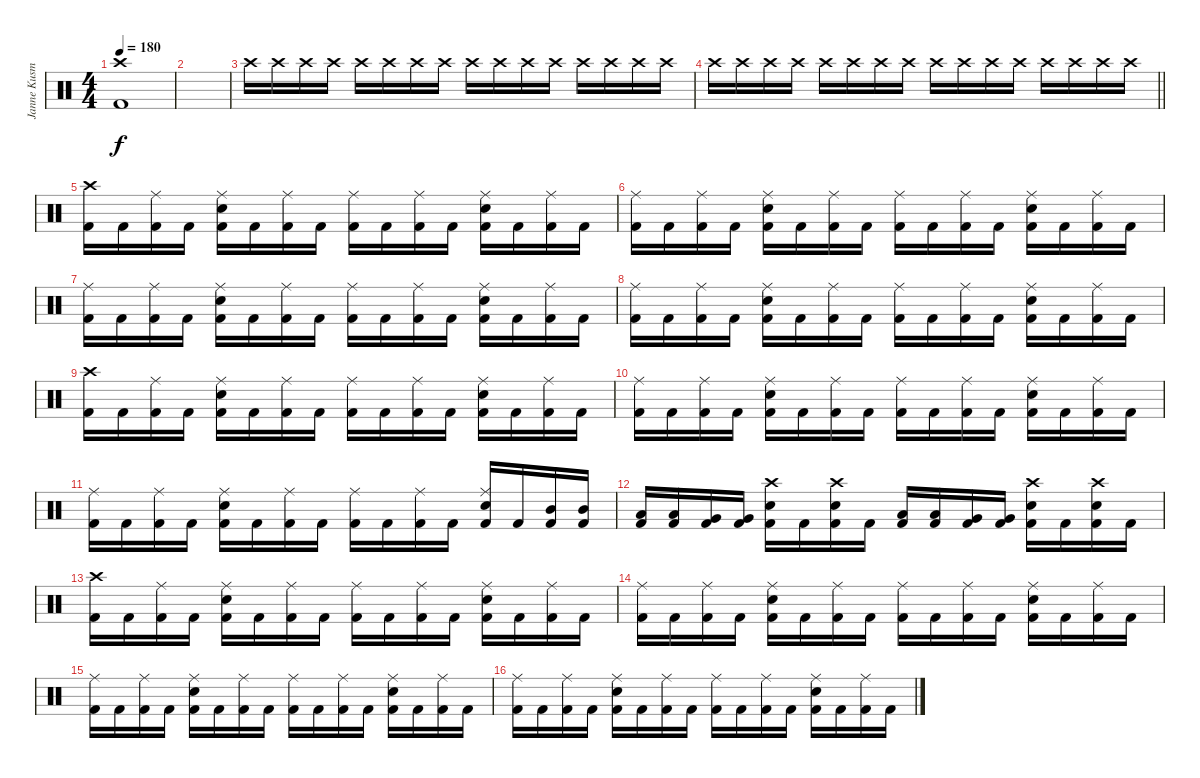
\track ("Janne Kusmin - Drums" "Janne Kusm") {instrument percussion}
\staff {score}
\articulation defaults
\ts (4 4)
\tempo 180
\clef neutral
\ks c
("Crash high (hit)" "Kick (hit) 2").1{dy f} |
|
"Crash high (hit)".16{volume 13} "Crash high (hit)".16 "Crash high (hit)".16 "Crash high (hit)".16 "Crash high (hit)".16 "Crash high (hit)".16 "Crash high (hit)".16 "Crash high (hit)".16 "Crash high (hit)".16 "Crash high (hit)".16 "Crash high (hit)".16 "Crash high (hit)".16 "Crash high (hit)".16 "Crash high (hit)".16 "Crash high (hit)".16 "Crash high (hit)".16 |
\barLineRight lightlight "Crash high (hit)".16 "Crash high (hit)".16 "Crash high (hit)".16 "Crash high (hit)".16 "Crash high (hit)".16 "Crash high (hit)".16 "Crash high (hit)".16 "Crash high (hit)".16 "Crash high (hit)".16 "Crash high (hit)".16 "Crash high (hit)".16 "Crash high (hit)".16 "Crash high (hit)".16 "Crash high (hit)".16 "Crash high (hit)".16 "Crash high (hit)".16
|
\section ("" "")
("Crash high (hit)" "Kick (hit) 2").16 "Kick (hit) 2".16 ("Ride (middle)" "Kick (hit) 2").16 "Kick (hit) 2".16 ("Ride (middle)" "Electric Snare (hit)" "Kick (hit) 2").16 "Kick (hit) 2".16 ("Ride (middle)" "Kick (hit) 2").16 "Kick (hit) 2".16 ("Ride (middle)" "Kick (hit) 2").16 "Kick (hit) 2".16 ("Ride (middle)" "Kick (hit) 2").16 "Kick (hit) 2".16 ("Ride (middle)" "Electric Snare (hit)" "Kick (hit) 2").16 "Kick (hit) 2".16 ("Ride (middle)" "Kick (hit) 2").16 "Kick (hit) 2".16 |
("Ride (middle)" "Kick (hit) 2").16 "Kick (hit) 2".16 ("Ride (middle)" "Kick (hit) 2").16 "Kick (hit) 2".16 ("Ride (middle)" "Electric Snare (hit)" "Kick (hit) 2").16 "Kick (hit) 2".16 ("Ride (middle)" "Kick (hit) 2").16 "Kick (hit) 2".16 ("Ride (middle)" "Kick (hit) 2").16 "Kick (hit) 2".16 ("Ride (middle)" "Kick (hit) 2").16 "Kick (hit) 2".16 ("Ride (middle)" "Electric Snare (hit)" "Kick (hit) 2").16 "Kick (hit) 2".16 ("Ride (middle)" "Kick (hit) 2").16 "Kick (hit) 2".16 |
("Ride (middle)" "Kick (hit) 2").16 "Kick (hit) 2".16 ("Ride (middle)" "Kick (hit) 2").16 "Kick (hit) 2".16 ("Ride (middle)" "Electric Snare (hit)" "Kick (hit) 2").16 "Kick (hit) 2".16 ("Ride (middle)" "Kick (hit) 2").16 "Kick (hit) 2".16 ("Ride (middle)" "Kick (hit) 2").16 "Kick (hit) 2".16 ("Ride (middle)" "Kick (hit) 2").16 "Kick (hit) 2".16 ("Ride (middle)" "Electric Snare (hit)" "Kick (hit) 2").16 "Kick (hit) 2".16 ("Ride (middle)" "Kick (hit) 2").16 "Kick (hit) 2".16 |
("Ride (middle)" "Kick (hit) 2").16 "Kick (hit) 2".16 ("Ride (middle)" "Kick (hit) 2").16 "Kick (hit) 2".16 ("Ride (middle)" "Electric Snare (hit)" "Kick (hit) 2").16 "Kick (hit) 2".16 ("Ride (middle)" "Kick (hit) 2").16 "Kick (hit) 2".16 ("Ride (middle)" "Kick (hit) 2").16 "Kick (hit) 2".16 ("Ride (middle)" "Kick (hit) 2").16 "Kick (hit) 2".16 ("Ride (middle)" "Electric Snare (hit)" "Kick (hit) 2").16 "Kick (hit) 2".16 ("Ride (middle)" "Kick (hit) 2").16 "Kick (hit) 2".16 |
("Crash high (hit)" "Kick (hit) 2").16 "Kick (hit) 2".16 ("Ride (middle)" "Kick (hit) 2").16 "Kick (hit) 2".16 ("Ride (middle)" "Electric Snare (hit)" "Kick (hit) 2").16 "Kick (hit) 2".16 ("Ride (middle)" "Kick (hit) 2").16 "Kick (hit) 2".16 ("Ride (middle)" "Kick (hit) 2").16 "Kick (hit) 2".16 ("Ride (middle)" "Kick (hit) 2").16 "Kick (hit) 2".16 ("Ride (middle)" "Electric Snare (hit)" "Kick (hit) 2").16 "Kick (hit) 2".16 ("Ride (middle)" "Kick (hit) 2").16 "Kick (hit) 2".16 |
("Ride (middle)" "Kick (hit) 2").16 "Kick (hit) 2".16 ("Ride (middle)" "Kick (hit) 2").16 "Kick (hit) 2".16 ("Ride (middle)" "Electric Snare (hit)" "Kick (hit) 2").16 "Kick (hit) 2".16 ("Ride (middle)" "Kick (hit) 2").16 "Kick (hit) 2".16 ("Ride (middle)" "Kick (hit) 2").16 "Kick (hit) 2".16 ("Ride (middle)" "Kick (hit) 2").16 "Kick (hit) 2".16 ("Ride (middle)" "Electric Snare (hit)" "Kick (hit) 2").16 "Kick (hit) 2".16 ("Ride (middle)" "Kick (hit) 2").16 "Kick (hit) 2".16 |
("Ride (middle)" "Kick (hit) 2").16 "Kick (hit) 2".16 ("Ride (middle)" "Kick (hit) 2").16 "Kick (hit) 2".16 ("Ride (middle)" "Electric Snare (hit)" "Kick (hit) 2").16 "Kick (hit) 2".16 ("Ride (middle)" "Kick (hit) 2").16 "Kick (hit) 2".16 ("Ride (middle)" "Kick (hit) 2").16 "Kick (hit) 2".16 ("Ride (middle)" "Kick (hit) 2").16 "Kick (hit) 2".16 ("Ride (middle)" "Electric Snare (hit)" "Kick (hit) 2").16 "Kick (hit) 2".16 ("Mid Tom (hit)" "Kick (hit) 2").16 ("Mid Tom (hit)" "Kick (hit) 2").16 |
("Low Tom (hit)" "Kick (hit) 2").16 ("Low Tom (hit)" "Kick (hit) 2").16 ("Very Low Tom (hit)" "Kick (hit) 2").16 ("Very Low Tom (hit)" "Kick (hit) 2").16 ("Crash high (hit)" "Electric Snare (hit)" "Kick (hit) 2").16 "Kick (hit) 2".16 ("Crash high (hit)" "Electric Snare (hit)" "Kick (hit) 2").16 "Kick (hit) 2".16 ("Low Tom (hit)" "Kick (hit) 2").16 ("Low Tom (hit)" "Kick (hit) 2").16 ("Very Low Tom (hit)" "Kick (hit) 2").16 ("Very Low Tom (hit)" "Kick (hit) 2").16 ("Crash high (hit)" "Electric Snare (hit)" "Kick (hit) 2").16 "Kick (hit) 2".16 ("Crash high (hit)" "Electric Snare (hit)" "Kick (hit) 2").16 "Kick (hit) 2".16 |
("Crash high (hit)" "Kick (hit) 2").16 "Kick (hit) 2".16 ("Ride (middle)" "Kick (hit) 2").16 "Kick (hit) 2".16 ("Ride (middle)" "Electric Snare (hit)" "Kick (hit) 2").16 "Kick (hit) 2".16 ("Ride (middle)" "Kick (hit) 2").16 "Kick (hit) 2".16 ("Ride (middle)" "Kick (hit) 2").16 "Kick (hit) 2".16 ("Ride (middle)" "Kick (hit) 2").16 "Kick (hit) 2".16 ("Ride (middle)" "Electric Snare (hit)" "Kick (hit) 2").16 "Kick (hit) 2".16 ("Ride (middle)" "Kick (hit) 2").16 "Kick (hit) 2".16 |
("Ride (middle)" "Kick (hit) 2").16 "Kick (hit) 2".16 ("Ride (middle)" "Kick (hit) 2").16 "Kick (hit) 2".16 ("Ride (middle)" "Electric Snare (hit)" "Kick (hit) 2").16 "Kick (hit) 2".16 ("Ride (middle)" "Kick (hit) 2").16 "Kick (hit) 2".16 ("Ride (middle)" "Kick (hit) 2").16 "Kick (hit) 2".16 ("Ride (middle)" "Kick (hit) 2").16 "Kick (hit) 2".16 ("Ride (middle)" "Electric Snare (hit)" "Kick (hit) 2").16 "Kick (hit) 2".16 ("Ride (middle)" "Kick (hit) 2").16 "Kick (hit) 2".16 |
("Ride (middle)" "Kick (hit) 2").16 "Kick (hit) 2".16 ("Ride (middle)" "Kick (hit) 2").16 "Kick (hit) 2".16 ("Ride (middle)" "Electric Snare (hit)" "Kick (hit) 2").16 "Kick (hit) 2".16 ("Ride (middle)" "Kick (hit) 2").16 "Kick (hit) 2".16 ("Ride (middle)" "Kick (hit) 2").16 "Kick (hit) 2".16 ("Ride (middle)" "Kick (hit) 2").16 "Kick (hit) 2".16 ("Ride (middle)" "Electric Snare (hit)" "Kick (hit) 2").16 "Kick (hit) 2".16 ("Ride (middle)" "Kick (hit) 2").16 "Kick (hit) 2".16 |
("Ride (middle)" "Kick (hit) 2").16 "Kick (hit) 2".16 ("Ride (middle)" "Kick (hit) 2").16 "Kick (hit) 2".16 ("Ride (middle)" "Electric Snare (hit)" "Kick (hit) 2").16 "Kick (hit) 2".16 ("Ride (middle)" "Kick (hit) 2").16 "Kick (hit) 2".16 ("Ride (middle)" "Kick (hit) 2").16 "Kick (hit) 2".16 ("Ride (middle)" "Kick (hit) 2").16 "Kick (hit) 2".16 ("Ride (middle)" "Electric Snare (hit)" "Kick (hit) 2").16 "Kick (hit) 2".16 ("Ride (middle)" "Kick (hit) 2").16 "Kick (hit) 2".16
